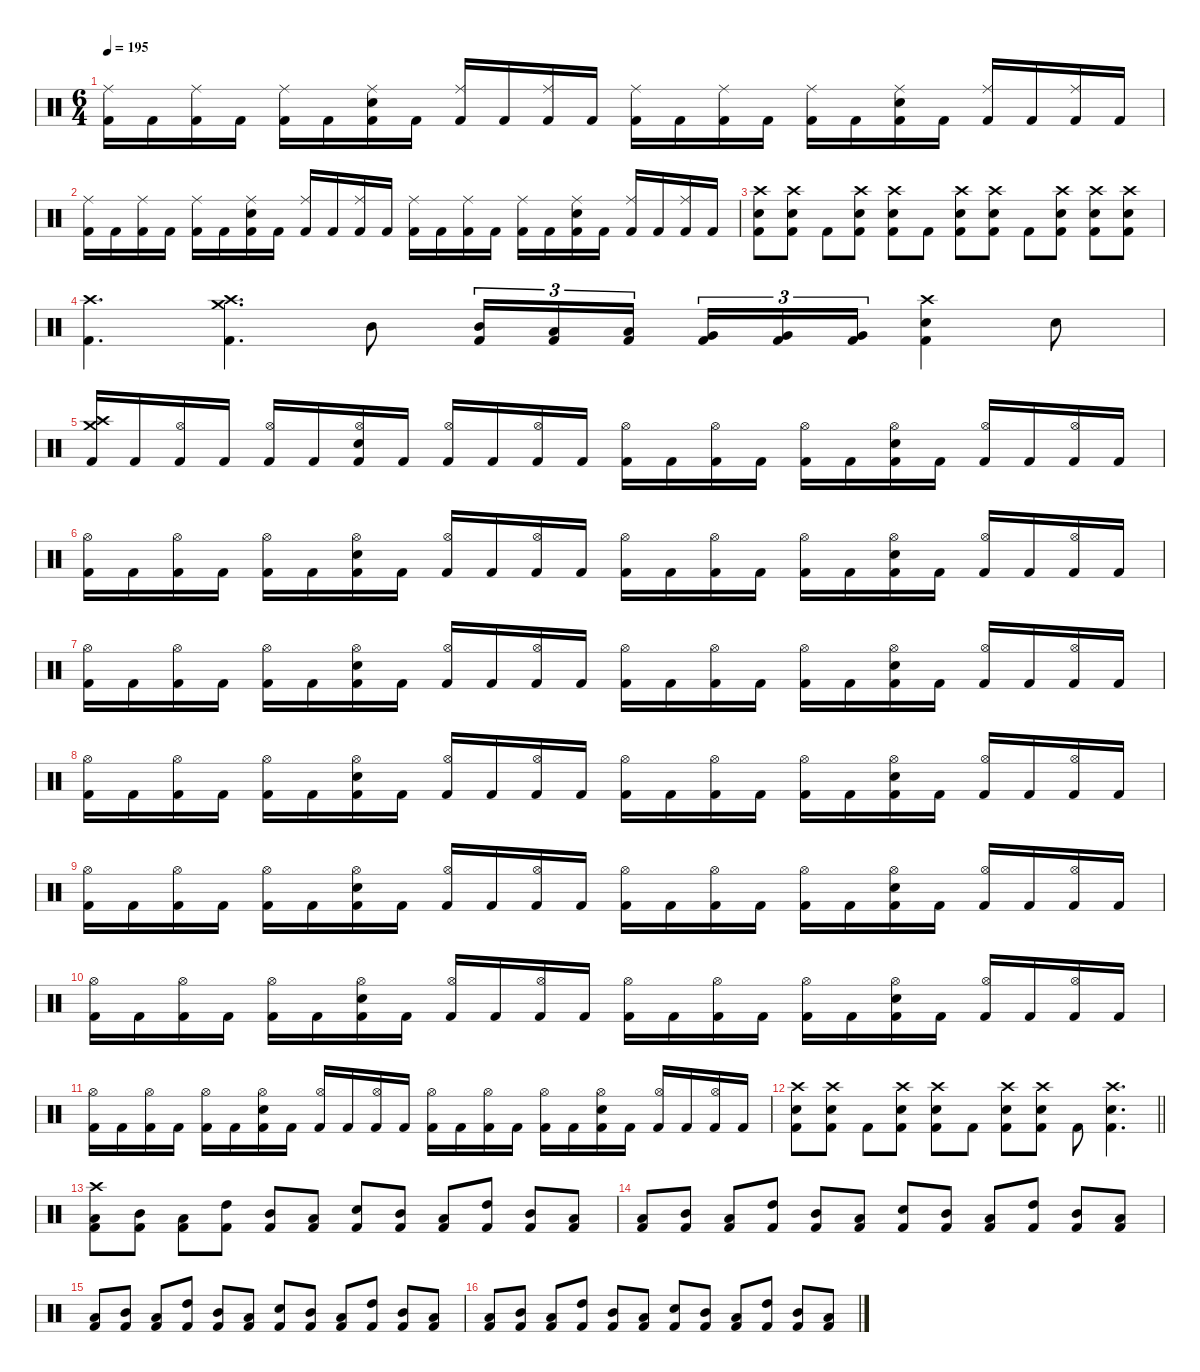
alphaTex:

\defaultSystemsLayout 4
\hideDynamics
\bracketExtendMode nobrackets
\singleTrackTrackNamePolicy hidden
\multiTrackTrackNamePolicy hidden
\firstSystemTrackNameMode fullname
\firstSystemTrackNameOrientation horizontal
\otherSystemsTrackNameOrientation horizontal
\track ("Drums" "drm.") {instrument percussion}
\staff {score}
\articulation defaults
\ts (6 4)
\tempo 195
\clef neutral
\ks c
("Ride (middle)" "Kick (hit) 2").16{dy mf beam Down} "Kick (hit) 2".16{dy f beam Down} ("Ride (middle)" "Kick (hit) 2").16{dy mf beam Down} "Kick (hit) 2".16{dy f beam Down} ("Ride (middle)" "Kick (hit) 2").16{dy mf beam Down} "Kick (hit) 2".16{dy f beam Down} ("Ride (middle)" "Snare (hit) 2" "Kick (hit) 2").16{dy mf beam Up} "Kick (hit) 2".16{dy f beam Up} ("Ride (middle)" "Kick (hit) 2").16{dy mf beam Up} "Kick (hit) 2".16{dy f beam Up} ("Ride (middle)" "Kick (hit) 2").16{dy mf beam Up} "Kick (hit) 2".16{dy f beam Up} ("Ride (middle)" "Kick (hit) 2").16{dy mf beam Down} "Kick (hit) 2".16{dy f beam Down} ("Ride (middle)" "Kick (hit) 2").16{dy mf beam Down} "Kick (hit) 2".16{dy f beam Down} ("Ride (middle)" "Kick (hit) 2").16{dy mf beam Down} "Kick (hit) 2".16{dy f beam Down} ("Ride (middle)" "Snare (hit) 2" "Kick (hit) 2").16{dy mf beam Up} "Kick (hit) 2".16{dy f beam Up} ("Ride (middle)" "Kick (hit) 2").16{dy mf beam Up} "Kick (hit) 2".16{dy f beam Up} ("Ride (middle)" "Kick (hit) 2").16{dy mf beam Up} "Kick (hit) 2".16{dy f beam Up} |
("Ride (middle)" "Kick (hit) 2").16{dy mf beam Down} "Kick (hit) 2".16{dy f beam Down} ("Ride (middle)" "Kick (hit) 2").16{dy mf beam Down} "Kick (hit) 2".16{dy f beam Down} ("Ride (middle)" "Kick (hit) 2").16{dy mf beam Down} "Kick (hit) 2".16{dy f beam Down} ("Ride (middle)" "Snare (hit) 2" "Kick (hit) 2").16{dy mf beam Up} "Kick (hit) 2".16{dy f beam Up} ("Ride (middle)" "Kick (hit) 2").16{dy mf beam Up} "Kick (hit) 2".16{dy f beam Up} ("Ride (middle)" "Kick (hit) 2").16{dy mf beam Up} "Kick (hit) 2".16{dy f beam Up} ("Ride (middle)" "Kick (hit) 2").16{dy mf beam Down} "Kick (hit) 2".16{dy f beam Down} ("Ride (middle)" "Kick (hit) 2").16{dy mf beam Down} "Kick (hit) 2".16{dy f beam Down} ("Ride (middle)" "Kick (hit) 2").16{dy mf beam Down} "Kick (hit) 2".16{dy f beam Down} ("Ride (middle)" "Snare (hit) 2" "Kick (hit) 2").16{dy mf beam Up} "Kick (hit) 2".16{dy f beam Up} ("Ride (middle)" "Kick (hit) 2").16{dy mf beam Up} "Kick (hit) 2".16{dy f beam Up} ("Ride (middle)" "Kick (hit) 2").16{dy mf beam Up} "Kick (hit) 2".16{dy f beam Up} |
("Crash high (hit)" "Snare (hit) 2" "Kick (hit) 2").8{beam Down} ("Crash high (hit)" "Snare (hit) 2" "Kick (hit) 2").8{beam Down} "Kick (hit) 2".8{beam Down} ("Crash high (hit)" "Snare (hit) 2" "Kick (hit) 2").8{beam Down} ("Crash high (hit)" "Snare (hit) 2" "Kick (hit) 2").8{beam Down} "Kick (hit) 2".8{beam Down} ("Crash high (hit)" "Snare (hit) 2" "Kick (hit) 2").8{beam Down} ("Crash high (hit)" "Snare (hit) 2" "Kick (hit) 2").8{beam Down} "Kick (hit) 2".8{beam Down} ("Crash high (hit)" "Snare (hit) 2" "Kick (hit) 2").8{beam Down} ("Crash high (hit)" "Snare (hit) 2" "Kick (hit) 2").8{beam Down} ("Crash high (hit)" "Snare (hit) 2" "Kick (hit) 2").8{beam Down} |
("Crash high (hit)" "Kick (hit) 2").4{d beam Down} ("Crash high (hit)" "Crash medium (hit)" "Kick (hit) 2").4{d beam Down} "Mid Tom (hit)".8{beam Down} ("Mid Tom (hit)" "Kick (hit) 2").16{tu (3 2) beam Up} ("Low Tom (hit)" "Kick (hit) 2").16{tu (3 2) beam Up} ("Low Tom (hit)" "Kick (hit) 2").16{tu (3 2) beam Up} ("Very Low Tom (hit)" "Kick (hit) 2").16{tu (3 2) beam Up} ("Very Low Tom (hit)" "Kick (hit) 2").16{tu (3 2) beam Up} ("Very Low Tom (hit)" "Kick (hit) 2").16{tu (3 2) beam Up} ("Crash high (hit)" "Snare (hit) 2" "Kick (hit) 2").4{beam Down} "Snare (hit) 2".8{beam Down} |
("Crash high (hit)" "Crash medium (hit)" "Kick (hit) 2").16{beam Up} "Kick (hit) 2".16{beam Up} ("Hi-Hat (open)" "Kick (hit) 2").16{dy mf beam Up} "Kick (hit) 2".16{dy f beam Up} ("Hi-Hat (open)" "Kick (hit) 2").16{dy mf beam Up} "Kick (hit) 2".16{dy f beam Up} ("Hi-Hat (open)" "Snare (hit) 2" "Kick (hit) 2").16{dy mf beam Up} "Kick (hit) 2".16{dy f beam Up} ("Hi-Hat (open)" "Kick (hit) 2").16{dy mf beam Up} "Kick (hit) 2".16{dy f beam Up} ("Hi-Hat (open)" "Kick (hit) 2").16{dy mf beam Up} "Kick (hit) 2".16{dy f beam Up} ("Hi-Hat (open)" "Kick (hit) 2").16{dy mf beam Down} "Kick (hit) 2".16{dy f beam Down} ("Hi-Hat (open)" "Kick (hit) 2").16{dy mf beam Down} "Kick (hit) 2".16{dy f beam Down} ("Hi-Hat (open)" "Kick (hit) 2").16{dy mf beam Down} "Kick (hit) 2".16{dy f beam Down} ("Hi-Hat (open)" "Snare (hit) 2" "Kick (hit) 2").16{dy mf beam Up} "Kick (hit) 2".16{dy f beam Up} ("Hi-Hat (open)" "Kick (hit) 2").16{dy mf beam Up} "Kick (hit) 2".16{dy f beam Up} ("Hi-Hat (open)" "Kick (hit) 2").16{dy mf beam Up} "Kick (hit) 2".16{dy f beam Up} |
("Hi-Hat (open)" "Kick (hit) 2").16{beam Down} "Kick (hit) 2".16{beam Down} ("Hi-Hat (open)" "Kick (hit) 2").16{dy mf beam Down} "Kick (hit) 2".16{dy f beam Down} ("Hi-Hat (open)" "Kick (hit) 2").16{dy mf beam Down} "Kick (hit) 2".16{dy f beam Down} ("Hi-Hat (open)" "Snare (hit) 2" "Kick (hit) 2").16{dy mf beam Up} "Kick (hit) 2".16{dy f beam Up} ("Hi-Hat (open)" "Kick (hit) 2").16{dy mf beam Up} "Kick (hit) 2".16{dy f beam Up} ("Hi-Hat (open)" "Kick (hit) 2").16{dy mf beam Up} "Kick (hit) 2".16{dy f beam Up} ("Hi-Hat (open)" "Kick (hit) 2").16{dy mf beam Down} "Kick (hit) 2".16{dy f beam Down} ("Hi-Hat (open)" "Kick (hit) 2").16{dy mf beam Down} "Kick (hit) 2".16{dy f beam Down} ("Hi-Hat (open)" "Kick (hit) 2").16{dy mf beam Down} "Kick (hit) 2".16{dy f beam Down} ("Hi-Hat (open)" "Snare (hit) 2" "Kick (hit) 2").16{dy mf beam Up} "Kick (hit) 2".16{dy f beam Up} ("Hi-Hat (open)" "Kick (hit) 2").16{dy mf beam Up} "Kick (hit) 2".16{dy f beam Up} ("Hi-Hat (open)" "Kick (hit) 2").16{dy mf beam Up} "Kick (hit) 2".16{dy f beam Up} |
("Hi-Hat (open)" "Kick (hit) 2").16{beam Down} "Kick (hit) 2".16{beam Down} ("Hi-Hat (open)" "Kick (hit) 2").16{dy mf beam Down} "Kick (hit) 2".16{dy f beam Down} ("Hi-Hat (open)" "Kick (hit) 2").16{dy mf beam Down} "Kick (hit) 2".16{dy f beam Down} ("Hi-Hat (open)" "Snare (hit) 2" "Kick (hit) 2").16{dy mf beam Up} "Kick (hit) 2".16{dy f beam Up} ("Hi-Hat (open)" "Kick (hit) 2").16{dy mf beam Up} "Kick (hit) 2".16{dy f beam Up} ("Hi-Hat (open)" "Kick (hit) 2").16{dy mf beam Up} "Kick (hit) 2".16{dy f beam Up} ("Hi-Hat (open)" "Kick (hit) 2").16{dy mf beam Down} "Kick (hit) 2".16{dy f beam Down} ("Hi-Hat (open)" "Kick (hit) 2").16{dy mf beam Down} "Kick (hit) 2".16{dy f beam Down} ("Hi-Hat (open)" "Kick (hit) 2").16{dy mf beam Down} "Kick (hit) 2".16{dy f beam Down} ("Hi-Hat (open)" "Snare (hit) 2" "Kick (hit) 2").16{dy mf beam Up} "Kick (hit) 2".16{dy f beam Up} ("Hi-Hat (open)" "Kick (hit) 2").16{dy mf beam Up} "Kick (hit) 2".16{dy f beam Up} ("Hi-Hat (open)" "Kick (hit) 2").16{dy mf beam Up} "Kick (hit) 2".16{dy f beam Up} |
("Hi-Hat (open)" "Kick (hit) 2").16{beam Down} "Kick (hit) 2".16{beam Down} ("Hi-Hat (open)" "Kick (hit) 2").16{dy mf beam Down} "Kick (hit) 2".16{dy f beam Down} ("Hi-Hat (open)" "Kick (hit) 2").16{dy mf beam Down} "Kick (hit) 2".16{dy f beam Down} ("Hi-Hat (open)" "Snare (hit) 2" "Kick (hit) 2").16{dy mf beam Up} "Kick (hit) 2".16{dy f beam Up} ("Hi-Hat (open)" "Kick (hit) 2").16{dy mf beam Up} "Kick (hit) 2".16{dy f beam Up} ("Hi-Hat (open)" "Kick (hit) 2").16{dy mf beam Up} "Kick (hit) 2".16{dy f beam Up} ("Hi-Hat (open)" "Kick (hit) 2").16{dy mf beam Down} "Kick (hit) 2".16{dy f beam Down} ("Hi-Hat (open)" "Kick (hit) 2").16{dy mf beam Down} "Kick (hit) 2".16{dy f beam Down} ("Hi-Hat (open)" "Kick (hit) 2").16{dy mf beam Down} "Kick (hit) 2".16{dy f beam Down} ("Hi-Hat (open)" "Snare (hit) 2" "Kick (hit) 2").16{dy mf beam Up} "Kick (hit) 2".16{dy f beam Up} ("Hi-Hat (open)" "Kick (hit) 2").16{dy mf beam Up} "Kick (hit) 2".16{dy f beam Up} ("Hi-Hat (open)" "Kick (hit) 2").16{dy mf beam Up} "Kick (hit) 2".16{dy f beam Up} |
("Hi-Hat (open)" "Kick (hit) 2").16{beam Down} "Kick (hit) 2".16{beam Down} ("Hi-Hat (open)" "Kick (hit) 2").16{dy mf beam Down} "Kick (hit) 2".16{dy f beam Down} ("Hi-Hat (open)" "Kick (hit) 2").16{dy mf beam Down} "Kick (hit) 2".16{dy f beam Down} ("Hi-Hat (open)" "Snare (hit) 2" "Kick (hit) 2").16{dy mf beam Up} "Kick (hit) 2".16{dy f beam Up} ("Hi-Hat (open)" "Kick (hit) 2").16{dy mf beam Up} "Kick (hit) 2".16{dy f beam Up} ("Hi-Hat (open)" "Kick (hit) 2").16{dy mf beam Up} "Kick (hit) 2".16{dy f beam Up} ("Hi-Hat (open)" "Kick (hit) 2").16{dy mf beam Down} "Kick (hit) 2".16{dy f beam Down} ("Hi-Hat (open)" "Kick (hit) 2").16{dy mf beam Down} "Kick (hit) 2".16{dy f beam Down} ("Hi-Hat (open)" "Kick (hit) 2").16{dy mf beam Down} "Kick (hit) 2".16{dy f beam Down} ("Hi-Hat (open)" "Snare (hit) 2" "Kick (hit) 2").16{dy mf beam Up} "Kick (hit) 2".16{dy f beam Up} ("Hi-Hat (open)" "Kick (hit) 2").16{dy mf beam Up} "Kick (hit) 2".16{dy f beam Up} ("Hi-Hat (open)" "Kick (hit) 2").16{dy mf beam Up} "Kick (hit) 2".16{dy f beam Up} |
("Hi-Hat (open)" "Kick (hit) 2").16{beam Down} "Kick (hit) 2".16{beam Down} ("Hi-Hat (open)" "Kick (hit) 2").16{dy mf beam Down} "Kick (hit) 2".16{dy f beam Down} ("Hi-Hat (open)" "Kick (hit) 2").16{dy mf beam Down} "Kick (hit) 2".16{dy f beam Down} ("Hi-Hat (open)" "Snare (hit) 2" "Kick (hit) 2").16{dy mf beam Up} "Kick (hit) 2".16{dy f beam Up} ("Hi-Hat (open)" "Kick (hit) 2").16{dy mf beam Up} "Kick (hit) 2".16{dy f beam Up} ("Hi-Hat (open)" "Kick (hit) 2").16{dy mf beam Up} "Kick (hit) 2".16{dy f beam Up} ("Hi-Hat (open)" "Kick (hit) 2").16{dy mf beam Down} "Kick (hit) 2".16{dy f beam Down} ("Hi-Hat (open)" "Kick (hit) 2").16{dy mf beam Down} "Kick (hit) 2".16{dy f beam Down} ("Hi-Hat (open)" "Kick (hit) 2").16{dy mf beam Down} "Kick (hit) 2".16{dy f beam Down} ("Hi-Hat (open)" "Snare (hit) 2" "Kick (hit) 2").16{dy mf beam Up} "Kick (hit) 2".16{dy f beam Up} ("Hi-Hat (open)" "Kick (hit) 2").16{dy mf beam Up} "Kick (hit) 2".16{dy f beam Up} ("Hi-Hat (open)" "Kick (hit) 2").16{dy mf beam Up} "Kick (hit) 2".16{dy f beam Up} |
("Hi-Hat (open)" "Kick (hit) 2").16{beam Down} "Kick (hit) 2".16{beam Down} ("Hi-Hat (open)" "Kick (hit) 2").16{dy mf beam Down} "Kick (hit) 2".16{dy f beam Down} ("Hi-Hat (open)" "Kick (hit) 2").16{dy mf beam Down} "Kick (hit) 2".16{dy f beam Down} ("Hi-Hat (open)" "Snare (hit) 2" "Kick (hit) 2").16{dy mf beam Up} "Kick (hit) 2".16{dy f beam Up} ("Hi-Hat (open)" "Kick (hit) 2").16{dy mf beam Up} "Kick (hit) 2".16{dy f beam Up} ("Hi-Hat (open)" "Kick (hit) 2").16{dy mf beam Up} "Kick (hit) 2".16{dy f beam Up} ("Hi-Hat (open)" "Kick (hit) 2").16{dy mf beam Down} "Kick (hit) 2".16{dy f beam Down} ("Hi-Hat (open)" "Kick (hit) 2").16{dy mf beam Down} "Kick (hit) 2".16{dy f beam Down} ("Hi-Hat (open)" "Kick (hit) 2").16{dy mf beam Down} "Kick (hit) 2".16{dy f beam Down} ("Hi-Hat (open)" "Snare (hit) 2" "Kick (hit) 2").16{dy mf beam Up} "Kick (hit) 2".16{dy f beam Up} ("Hi-Hat (open)" "Kick (hit) 2").16{dy mf beam Up} "Kick (hit) 2".16{dy f beam Up} ("Hi-Hat (open)" "Kick (hit) 2").16{dy mf beam Up} "Kick (hit) 2".16{dy f beam Up} |
\barLineRight lightlight
("Crash high (hit)" "Snare (hit) 2" "Kick (hit) 2").8{beam Down} ("Crash high (hit)" "Snare (hit) 2" "Kick (hit) 2").8{beam Down} "Kick (hit) 2".8{beam Down} ("Crash high (hit)" "Snare (hit) 2" "Kick (hit) 2").8{beam Down} ("Crash high (hit)" "Snare (hit) 2" "Kick (hit) 2").8{beam Down} "Kick (hit) 2".8{beam Down} ("Crash high (hit)" "Snare (hit) 2" "Kick (hit) 2").8{beam Down} ("Crash high (hit)" "Snare (hit) 2" "Kick (hit) 2").8{beam Down} "Kick (hit) 2".8{beam Down} ("Crash high (hit)" "Snare (hit) 2" "Kick (hit) 2").4{d beam Down} |
("Crash high (hit)" "Low Tom (hit)" "Kick (hit) 2").8{beam Down} ("Mid Tom (hit)" "Kick (hit) 2").8{beam Down} ("Low Tom (hit)" "Kick (hit) 2").8{beam Down} ("High Tom (hit)" "Kick (hit) 2").8{beam Up} ("Mid Tom (hit)" "Kick (hit) 2").8{beam Up} ("Low Tom (hit)" "Kick (hit) 2").8{beam Up} ("Snare (hit) 2" "Kick (hit) 2").8{beam Up} ("Mid Tom (hit)" "Kick (hit) 2").8{beam Up} ("Low Tom (hit)" "Kick (hit) 2").8{beam Up} ("High Tom (hit)" "Kick (hit) 2").8{beam Up} ("Mid Tom (hit)" "Kick (hit) 2").8{beam Up} ("Low Tom (hit)" "Kick (hit) 2").8{beam Up} |
("Low Tom (hit)" "Kick (hit) 2").8{beam Up} ("Mid Tom (hit)" "Kick (hit) 2").8{beam Up} ("Low Tom (hit)" "Kick (hit) 2").8{beam Up} ("High Tom (hit)" "Kick (hit) 2").8{beam Up} ("Mid Tom (hit)" "Kick (hit) 2").8{beam Up} ("Low Tom (hit)" "Kick (hit) 2").8{beam Up} ("Snare (hit) 2" "Kick (hit) 2").8{beam Up} ("Mid Tom (hit)" "Kick (hit) 2").8{beam Up} ("Low Tom (hit)" "Kick (hit) 2").8{beam Up} ("High Tom (hit)" "Kick (hit) 2").8{beam Up} ("Mid Tom (hit)" "Kick (hit) 2").8{beam Up} ("Low Tom (hit)" "Kick (hit) 2").8{beam Up} |
("Low Tom (hit)" "Kick (hit) 2").8{beam Up} ("Mid Tom (hit)" "Kick (hit) 2").8{beam Up} ("Low Tom (hit)" "Kick (hit) 2").8{beam Up} ("High Tom (hit)" "Kick (hit) 2").8{beam Up} ("Mid Tom (hit)" "Kick (hit) 2").8{beam Up} ("Low Tom (hit)" "Kick (hit) 2").8{beam Up} ("Snare (hit) 2" "Kick (hit) 2").8{beam Up} ("Mid Tom (hit)" "Kick (hit) 2").8{beam Up} ("Low Tom (hit)" "Kick (hit) 2").8{beam Up} ("High Tom (hit)" "Kick (hit) 2").8{beam Up} ("Mid Tom (hit)" "Kick (hit) 2").8{beam Up} ("Low Tom (hit)" "Kick (hit) 2").8{beam Up} |
("Low Tom (hit)" "Kick (hit) 2").8{beam Up} ("Mid Tom (hit)" "Kick (hit) 2").8{beam Up} ("Low Tom (hit)" "Kick (hit) 2").8{beam Up} ("High Tom (hit)" "Kick (hit) 2").8{beam Up} ("Mid Tom (hit)" "Kick (hit) 2").8{beam Up} ("Low Tom (hit)" "Kick (hit) 2").8{beam Up} ("Snare (hit) 2" "Kick (hit) 2").8{beam Up} ("Mid Tom (hit)" "Kick (hit) 2").8{beam Up} ("Low Tom (hit)" "Kick (hit) 2").8{beam Up} ("High Tom (hit)" "Kick (hit) 2").8{beam Up} ("Mid Tom (hit)" "Kick (hit) 2").8{beam Up} ("Low Tom (hit)" "Kick (hit) 2").8{beam Up}
